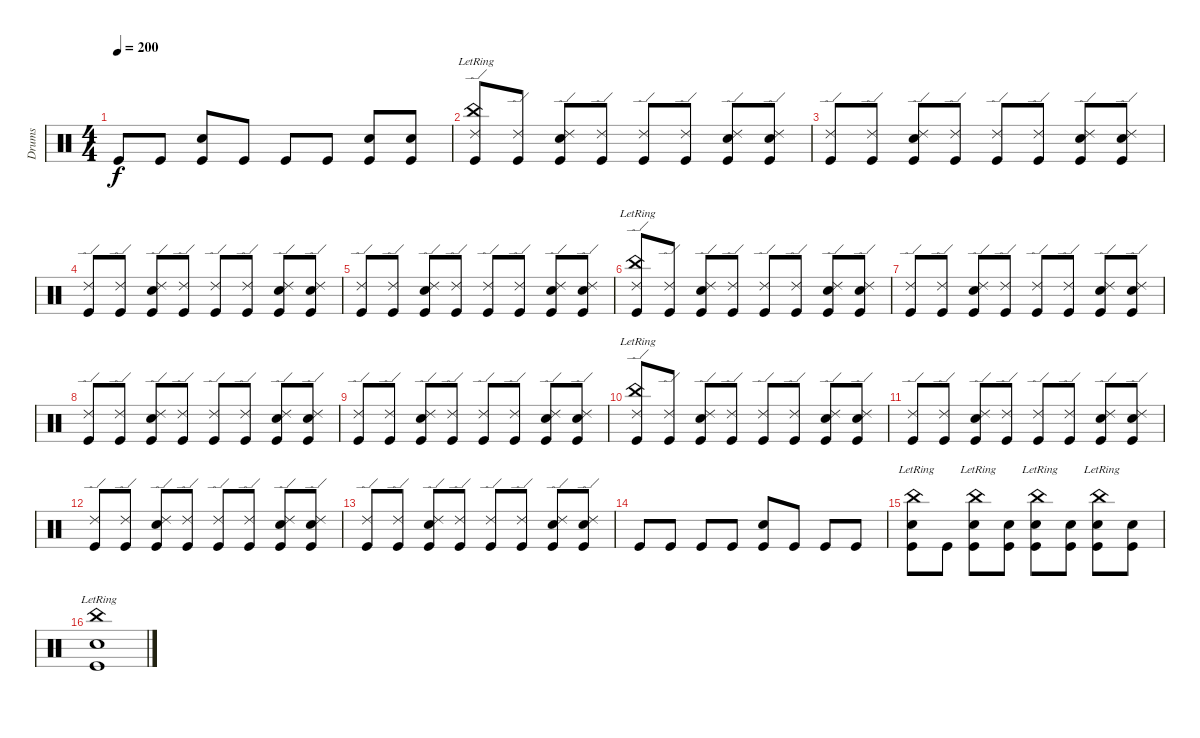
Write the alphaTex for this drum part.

\track ("Drums" "Drums") {instrument percussion}
\staff {score}
\articulation defaults
\ts (4 4)
\tempo 200
\clef neutral
\ks c "Kick (hit)".8{dy f} "Kick (hit)".8
("Kick (hit)" "Snare (hit) 2").8 "Kick (hit)".8 "Kick (hit)".8 "Kick (hit)".8 ("Kick (hit)" "Snare (hit) 2").8 ("Kick (hit)" "Snare (hit) 2").8 |
("Kick (hit)" "China (hit)"{lr} "Ride (edge) 2").8 ("Kick (hit)" "Ride (edge) 2").8 ("Kick (hit)" "Snare (hit) 2" "Ride (edge) 2").8 ("Kick (hit)" "Ride (edge) 2").8 ("Kick (hit)" "Ride (edge) 2").8 ("Kick (hit)" "Ride (edge) 2").8 ("Kick (hit)" "Snare (hit) 2" "Ride (edge) 2").8 ("Kick (hit)" "Snare (hit) 2" "Ride (edge) 2").8 |
("Kick (hit)" "Ride (edge) 2").8 ("Kick (hit)" "Ride (edge) 2").8 ("Kick (hit)" "Snare (hit) 2" "Ride (edge) 2").8 ("Kick (hit)" "Ride (edge) 2").8 ("Kick (hit)" "Ride (edge) 2").8 ("Kick (hit)" "Ride (edge) 2").8 ("Kick (hit)" "Snare (hit) 2" "Ride (edge) 2").8 ("Kick (hit)" "Snare (hit) 2" "Ride (edge) 2").8 |
("Kick (hit)" "Ride (edge) 2").8 ("Kick (hit)" "Ride (edge) 2").8 ("Kick (hit)" "Snare (hit) 2" "Ride (edge) 2").8 ("Kick (hit)" "Ride (edge) 2").8 ("Kick (hit)" "Ride (edge) 2").8 ("Kick (hit)" "Ride (edge) 2").8 ("Kick (hit)" "Snare (hit) 2" "Ride (edge) 2").8 ("Kick (hit)" "Snare (hit) 2" "Ride (edge) 2").8 |
("Kick (hit)" "Ride (edge) 2").8 ("Kick (hit)" "Ride (edge) 2").8 ("Kick (hit)" "Snare (hit) 2" "Ride (edge) 2").8 ("Kick (hit)" "Ride (edge) 2").8 ("Kick (hit)" "Ride (edge) 2").8 ("Kick (hit)" "Ride (edge) 2").8 ("Kick (hit)" "Snare (hit) 2" "Ride (edge) 2").8 ("Kick (hit)" "Snare (hit) 2" "Ride (edge) 2").8 |
("Kick (hit)" "China (hit)"{lr} "Ride (edge) 2").8 ("Kick (hit)" "Ride (edge) 2").8 ("Kick (hit)" "Snare (hit) 2" "Ride (edge) 2").8 ("Kick (hit)" "Ride (edge) 2").8 ("Kick (hit)" "Ride (edge) 2").8 ("Kick (hit)" "Ride (edge) 2").8 ("Kick (hit)" "Snare (hit) 2" "Ride (edge) 2").8 ("Kick (hit)" "Snare (hit) 2" "Ride (edge) 2").8 |
("Kick (hit)" "Ride (edge) 2").8 ("Kick (hit)" "Ride (edge) 2").8 ("Kick (hit)" "Snare (hit) 2" "Ride (edge) 2").8 ("Kick (hit)" "Ride (edge) 2").8 ("Kick (hit)" "Ride (edge) 2").8 ("Kick (hit)" "Ride (edge) 2").8 ("Kick (hit)" "Snare (hit) 2" "Ride (edge) 2").8 ("Kick (hit)" "Snare (hit) 2" "Ride (edge) 2").8 |
("Kick (hit)" "Ride (edge) 2").8 ("Kick (hit)" "Ride (edge) 2").8 ("Kick (hit)" "Snare (hit) 2" "Ride (edge) 2").8 ("Kick (hit)" "Ride (edge) 2").8 ("Kick (hit)" "Ride (edge) 2").8 ("Kick (hit)" "Ride (edge) 2").8 ("Kick (hit)" "Snare (hit) 2" "Ride (edge) 2").8 ("Kick (hit)" "Snare (hit) 2" "Ride (edge) 2").8 |
("Kick (hit)" "Ride (edge) 2").8 ("Kick (hit)" "Ride (edge) 2").8 ("Kick (hit)" "Snare (hit) 2" "Ride (edge) 2").8 ("Kick (hit)" "Ride (edge) 2").8 ("Kick (hit)" "Ride (edge) 2").8 ("Kick (hit)" "Ride (edge) 2").8 ("Kick (hit)" "Snare (hit) 2" "Ride (edge) 2").8 ("Kick (hit)" "Snare (hit) 2" "Ride (edge) 2").8 |
("Kick (hit)" "China (hit)"{lr} "Ride (edge) 2").8 ("Kick (hit)" "Ride (edge) 2").8 ("Kick (hit)" "Snare (hit) 2" "Ride (edge) 2").8 ("Kick (hit)" "Ride (edge) 2").8 ("Kick (hit)" "Ride (edge) 2").8 ("Kick (hit)" "Ride (edge) 2").8 ("Kick (hit)" "Snare (hit) 2" "Ride (edge) 2").8 ("Kick (hit)" "Snare (hit) 2" "Ride (edge) 2").8 |
("Kick (hit)" "Ride (edge) 2").8 ("Kick (hit)" "Ride (edge) 2").8 ("Kick (hit)" "Snare (hit) 2" "Ride (edge) 2").8 ("Kick (hit)" "Ride (edge) 2").8 ("Kick (hit)" "Ride (edge) 2").8 ("Kick (hit)" "Ride (edge) 2").8 ("Kick (hit)" "Snare (hit) 2" "Ride (edge) 2").8 ("Kick (hit)" "Snare (hit) 2" "Ride (edge) 2").8 |
("Kick (hit)" "Ride (edge) 2").8 ("Kick (hit)" "Ride (edge) 2").8 ("Kick (hit)" "Snare (hit) 2" "Ride (edge) 2").8 ("Kick (hit)" "Ride (edge) 2").8 ("Kick (hit)" "Ride (edge) 2").8 ("Kick (hit)" "Ride (edge) 2").8 ("Kick (hit)" "Snare (hit) 2" "Ride (edge) 2").8 ("Kick (hit)" "Snare (hit) 2" "Ride (edge) 2").8 |
("Kick (hit)" "Ride (edge) 2").8 ("Kick (hit)" "Ride (edge) 2").8 ("Kick (hit)" "Snare (hit) 2" "Ride (edge) 2").8 ("Kick (hit)" "Ride (edge) 2").8 ("Kick (hit)" "Ride (edge) 2").8 ("Kick (hit)" "Ride (edge) 2").8 ("Kick (hit)" "Snare (hit) 2" "Ride (edge) 2").8 ("Kick (hit)" "Snare (hit) 2" "Ride (edge) 2").8 |
"Kick (hit)".8 "Kick (hit)".8 "Kick (hit)".8 "Kick (hit)".8 ("Kick (hit)" "Snare (hit) 2").8 "Kick (hit)".8 "Kick (hit)".8 "Kick (hit)".8 |
("Kick (hit)" "Snare (hit) 2" "China (hit)"{lr}).8 "Kick (hit)".8 ("Kick (hit)" "Snare (hit) 2" "China (hit)"{lr}).8 ("Kick (hit)" "Snare (hit) 2").8 ("Kick (hit)" "Snare (hit) 2" "China (hit)"{lr}).8 ("Kick (hit)" "Snare (hit) 2").8 ("Kick (hit)" "Snare (hit) 2" "China (hit)"{lr}).8 ("Kick (hit)" "Snare (hit) 2").8 |
("Kick (hit)" "Snare (hit) 2" "China (hit)"{lr}).1
